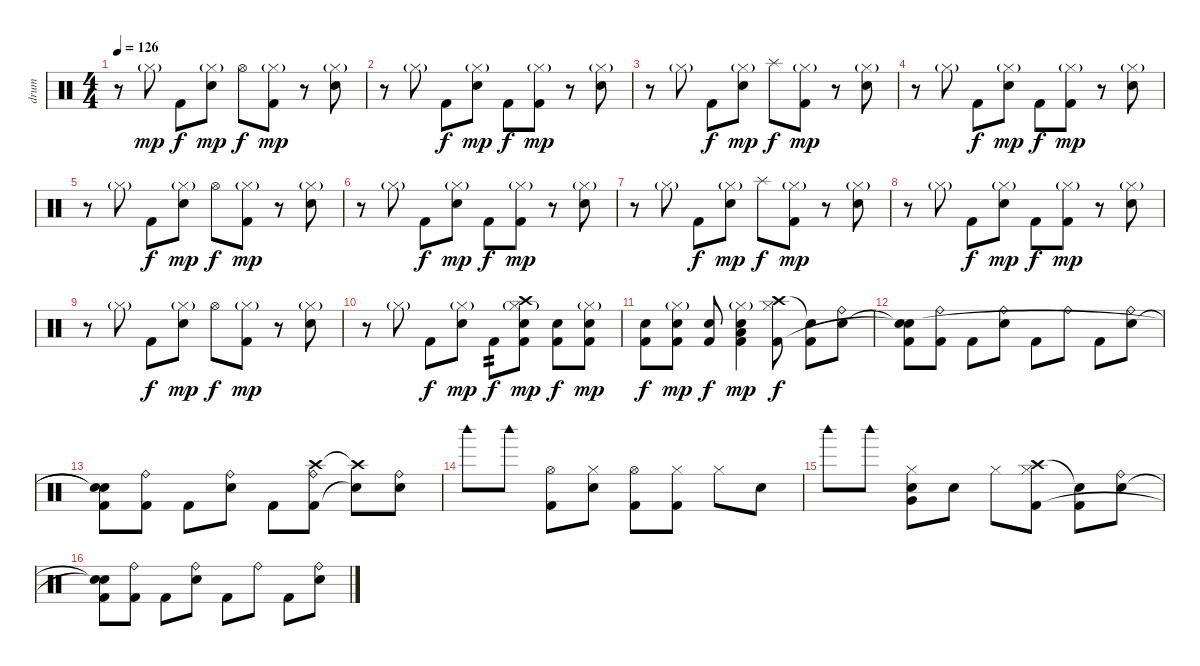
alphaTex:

\track ("drum" "drum") {instrument percussion}
\staff {score}
\articulation defaults
\ts (4 4)
\tempo 126
\clef neutral
\ks c
r.8{dy mp} "Hi-Hat (closed)"{g}.8 "Kick (hit) 2".8{dy f} ("Hi-Hat (closed)"{g} "Snare (hit) 2").8{dy mp} "Hi-Hat (open)".8{dy f} ("Hi-Hat (closed)"{g} "Kick (hit) 2").8{dy mp} r.8 ("Hi-Hat (closed)"{g} "Snare (hit) 2").8 |
r.8 "Hi-Hat (closed)"{g}.8 "Kick (hit) 2".8{dy f} ("Hi-Hat (closed)"{g} "Snare (hit) 2").8{dy mp} "Kick (hit) 2".8{dy f} ("Hi-Hat (closed)"{g} "Kick (hit) 2").8{dy mp} r.8 ("Hi-Hat (closed)"{g} "Snare (hit) 2").8 |
r.8 "Hi-Hat (closed)"{g}.8 "Kick (hit) 2".8{dy f} ("Hi-Hat (closed)"{g} "Snare (hit) 2").8{dy mp} "Splash (hit)".8{dy f} ("Hi-Hat (closed)"{g} "Kick (hit) 2").8{dy mp} r.8 ("Hi-Hat (closed)"{g} "Snare (hit) 2").8 |
r.8 "Hi-Hat (closed)"{g}.8 "Kick (hit) 2".8{dy f} ("Hi-Hat (closed)"{g} "Snare (hit) 2").8{dy mp} "Kick (hit) 2".8{dy f} ("Hi-Hat (closed)"{g} "Kick (hit) 2").8{dy mp} r.8 ("Hi-Hat (closed)"{g} "Snare (hit) 2").8 |
r.8 "Hi-Hat (closed)"{g}.8 "Kick (hit) 2".8{dy f} ("Hi-Hat (closed)"{g} "Snare (hit) 2").8{dy mp} "Hi-Hat (open)".8{dy f} ("Hi-Hat (closed)"{g} "Kick (hit) 2").8{dy mp} r.8 ("Hi-Hat (closed)"{g} "Snare (hit) 2").8 |
r.8 "Hi-Hat (closed)"{g}.8 "Kick (hit) 2".8{dy f} ("Hi-Hat (closed)"{g} "Snare (hit) 2").8{dy mp} "Kick (hit) 2".8{dy f} ("Hi-Hat (closed)"{g} "Kick (hit) 2").8{dy mp} r.8 ("Hi-Hat (closed)"{g} "Snare (hit) 2").8 |
r.8 "Hi-Hat (closed)"{g}.8 "Kick (hit) 2".8{dy f} ("Hi-Hat (closed)"{g} "Snare (hit) 2").8{dy mp} "Splash (hit)".8{dy f} ("Hi-Hat (closed)"{g} "Kick (hit) 2").8{dy mp} r.8 ("Hi-Hat (closed)"{g} "Snare (hit) 2").8 |
r.8 "Hi-Hat (closed)"{g}.8 "Kick (hit) 2".8{dy f} ("Hi-Hat (closed)"{g} "Snare (hit) 2").8{dy mp} "Kick (hit) 2".8{dy f} ("Hi-Hat (closed)"{g} "Kick (hit) 2").8{dy mp} r.8 ("Hi-Hat (closed)"{g} "Snare (hit) 2").8 |
r.8 "Hi-Hat (closed)"{g}.8 "Kick (hit) 2".8{dy f} ("Hi-Hat (closed)"{g} "Snare (hit) 2").8{dy mp} "Hi-Hat (open)".8{dy f} ("Hi-Hat (closed)"{g} "Kick (hit) 2").8{dy mp} r.8 ("Hi-Hat (closed)"{g} "Snare (hit) 2").8 |
r.8 "Hi-Hat (closed)"{g}.8 "Kick (hit) 2".8{dy f} ("Hi-Hat (closed)"{g} "Snare (hit) 2").8{dy mp} "Kick (hit) 2".8{tp 2 dy f} ("Crash high (hit)" "Hi-Hat (closed)"{g} "Snare (hit) 2" "Kick (hit) 2").8{dy mp} ("Snare (hit) 2" "Kick (hit) 2").8{dy f} ("Hi-Hat (closed)"{g} "Snare (hit) 2" "Kick (hit) 2").8{dy mp} |
("Snare (hit) 2" "Kick (hit) 2").8{dy f} ("Hi-Hat (closed)"{g} "Snare (hit) 2" "Kick (hit) 2").8{dy mp} ("Snare (hit) 2" "Kick (hit) 2").8{dy f} ("Hi-Hat (closed)"{g} "Low Floor Tom (hit)" "Snare (hit) 2" "Kick (hit) 2").4{dy mp} ("Crash high (hit)" "Hi-Hat (closed)" "Kick (hit) 2").8{dy f} ("Snare (hit)"{t} "Kick (hit) 2").8 ("Snare (hit) 2" "Ride (bell)").8 |
("Snare (hit)"{t} "Kick (hit) 2" "Snare (hit)"{t}).8 ("Kick (hit) 2" "Ride (bell)").8 "Kick (hit) 2".8 ("Snare (hit) 2" "Ride (bell)").8 "Kick (hit) 2".8 "Ride (bell)".8 "Kick (hit) 2".8 ("Snare (hit) 2" "Ride (bell)").8 |
("Snare (hit)"{t} "Kick (hit) 2" "Snare (hit)"{t}).8 ("Kick (hit) 2" "Ride (bell)").8 "Kick (hit) 2".8 ("Snare (hit) 2" "Ride (bell)").8 "Kick (hit) 2".8 ("Crash high (hit)" "Kick (hit) 2" "Ride (bell)").8 ("Crash high (hit)"{t} "Snare (hit)"{t}).8 ("Snare (hit) 2" "Ride (bell)").8 |
"Woodblock high (hit)".8 "Woodblock high (hit)".8 ("Hi-Hat (open)" "Kick (hit) 2").8 ("Hi-Hat (closed)" "Snare (hit) 2").8 ("Hi-Hat (open)" "Kick (hit) 2").8 ("Hi-Hat (closed)" "Kick (hit) 2").8 "Hi-Hat (closed)".8 "Snare (hit) 2".8 |
"Woodblock high (hit)".8 "Woodblock high (hit)".8 ("Hi-Hat (closed)" "Snare (hit) 2" "Very Low Tom (hit)").8 "Snare (hit) 2".8 "Hi-Hat (closed)".8 ("Crash high (hit)" "Hi-Hat (closed)" "Kick (hit) 2").8 ("Snare (hit)"{t} "Kick (hit) 2").8 ("Snare (hit) 2" "Ride (bell)").8 |
("Snare (hit)"{t} "Kick (hit) 2" "Snare (hit)"{t}).8 ("Kick (hit) 2" "Ride (bell)").8 "Kick (hit) 2".8 ("Snare (hit) 2" "Ride (bell)").8 "Kick (hit) 2".8 "Ride (bell)".8 "Kick (hit) 2".8 ("Snare (hit) 2" "Ride (bell)").8
